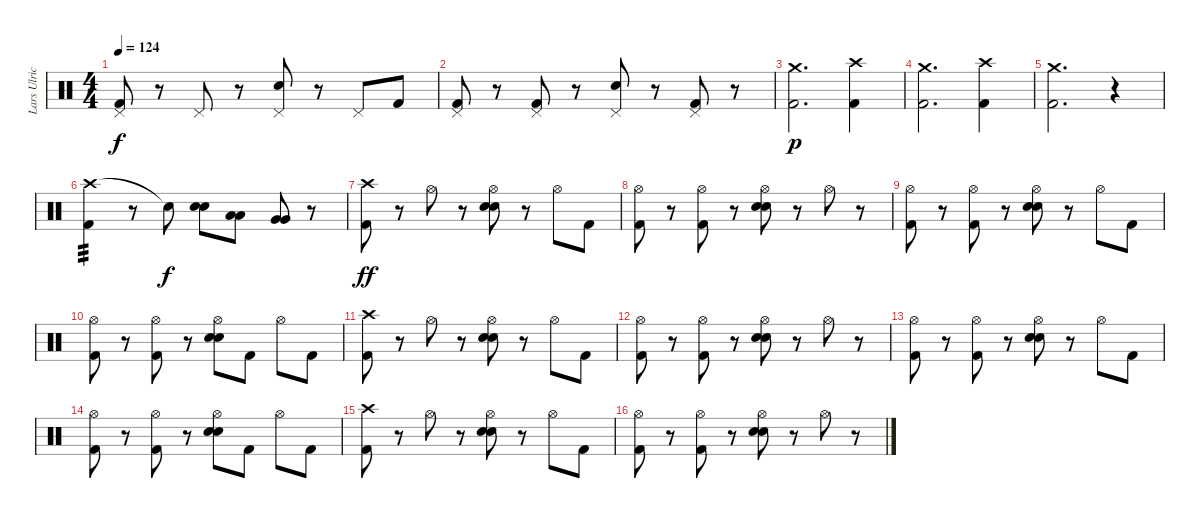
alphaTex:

\track ("Lars Ulrich" "Lars Ulric") {instrument percussion}
\staff {score}
\articulation defaults
\ts (4 4)
\tempo 124
\clef neutral
\ks c
("Pedal Hi-Hat (hit)" "Kick (hit) 2").8{dy f} r.8 "Pedal Hi-Hat (hit)".8 r.8 ("Pedal Hi-Hat (hit)" "Electric Snare (hit)").8 r.8 "Pedal Hi-Hat (hit)".8 "Kick (hit) 2".8 |
("Pedal Hi-Hat (hit)" "Kick (hit) 2").8 r.8 ("Pedal Hi-Hat (hit)" "Kick (hit) 2").8 r.8 ("Pedal Hi-Hat (hit)" "Electric Snare (hit)").8 r.8 ("Pedal Hi-Hat (hit)" "Kick (hit) 2").8 r.8 |
("Crash medium (hit)" "Kick (hit) 2").2{d dy p} ("Crash high (hit)" "Kick (hit) 2").4 |
("Crash medium (hit)" "Kick (hit) 2").2{d} ("Crash high (hit)" "Kick (hit) 2").4 |
("Crash medium (hit)" "Kick (hit) 2").2{d} r.4 |
("Crash high (hit)" "Kick (hit) 2").4{tp 3} r.8 "Snare (hit)"{t}.8{dy f} ("Electric Snare (hit)" "Electric Snare (hit)").8{bd 60} ("Low Tom (hit)" "Low Tom (hit)").8 ("Very Low Tom (hit)" "Very Low Tom (hit)").8 r.8 |
("Crash high (hit)" "Kick (hit) 2").8{dy ff} r.8 "Hi-Hat (open)".8 r.8 ("Hi-Hat (open)" "Electric Snare (hit)" "Electric Snare (hit)").8 r.8 "Hi-Hat (open)".8 "Kick (hit) 2".8 |
("Hi-Hat (open)" "Kick (hit) 2").8 r.8 ("Hi-Hat (open)" "Kick (hit) 2").8 r.8 ("Hi-Hat (open)" "Electric Snare (hit)" "Electric Snare (hit)").8 r.8 "Hi-Hat (open)".8 r.8 |
("Hi-Hat (open)" "Kick (hit) 2").8 r.8 ("Hi-Hat (open)" "Kick (hit) 2").8 r.8 ("Hi-Hat (open)" "Electric Snare (hit)" "Electric Snare (hit)").8 r.8 "Hi-Hat (open)".8 "Kick (hit) 2".8 |
("Hi-Hat (open)" "Kick (hit) 2").8 r.8 ("Hi-Hat (open)" "Kick (hit) 2").8 r.8 ("Hi-Hat (open)" "Electric Snare (hit)" "Electric Snare (hit)").8 "Kick (hit) 2".8 "Hi-Hat (open)".8 "Kick (hit) 2".8 |
("Crash high (hit)" "Kick (hit) 2").8 r.8 "Hi-Hat (open)".8 r.8 ("Hi-Hat (open)" "Electric Snare (hit)" "Electric Snare (hit)").8 r.8 "Hi-Hat (open)".8 "Kick (hit) 2".8 |
("Hi-Hat (open)" "Kick (hit) 2").8 r.8 ("Hi-Hat (open)" "Kick (hit) 2").8 r.8 ("Hi-Hat (open)" "Electric Snare (hit)" "Electric Snare (hit)").8 r.8 "Hi-Hat (open)".8 r.8 |
("Hi-Hat (open)" "Kick (hit) 2").8 r.8 ("Hi-Hat (open)" "Kick (hit) 2").8 r.8 ("Hi-Hat (open)" "Electric Snare (hit)" "Electric Snare (hit)").8 r.8 "Hi-Hat (open)".8 "Kick (hit) 2".8 |
("Hi-Hat (open)" "Kick (hit) 2").8 r.8 ("Hi-Hat (open)" "Kick (hit) 2").8 r.8 ("Hi-Hat (open)" "Electric Snare (hit)" "Electric Snare (hit)").8 "Kick (hit) 2".8 "Hi-Hat (open)".8 "Kick (hit) 2".8 |
("Crash high (hit)" "Kick (hit) 2").8 r.8 "Hi-Hat (open)".8 r.8 ("Hi-Hat (open)" "Electric Snare (hit)" "Electric Snare (hit)").8 r.8 "Hi-Hat (open)".8 "Kick (hit) 2".8 |
("Hi-Hat (open)" "Kick (hit) 2").8 r.8 ("Hi-Hat (open)" "Kick (hit) 2").8 r.8 ("Hi-Hat (open)" "Electric Snare (hit)" "Electric Snare (hit)").8 r.8 "Hi-Hat (open)".8 r.8
